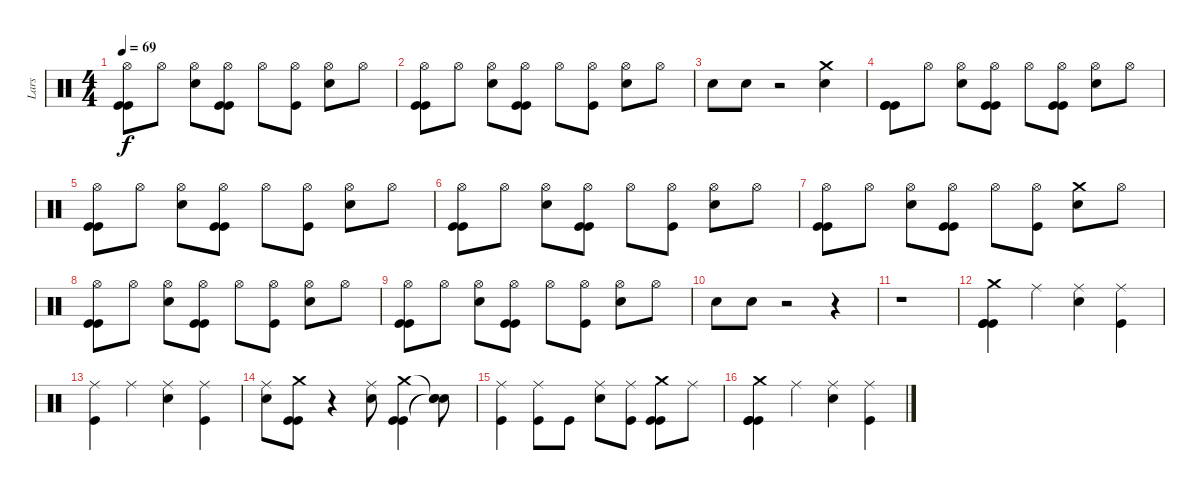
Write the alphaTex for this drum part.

\track ("Lars" "Lars") {instrument percussion}
\staff {score}
\articulation defaults
\ts (4 4)
\tempo 69
\clef neutral
\ks c
("Hi-Hat (open)" "Kick (hit)" "Kick (hit)").8{dy f} "Hi-Hat (open)".8 ("Hi-Hat (open)" "Electric Snare (hit)").8 ("Hi-Hat (open)" "Kick (hit)" "Kick (hit)").8 "Hi-Hat (open)".8 ("Hi-Hat (open)" "Kick (hit)").8 ("Hi-Hat (open)" "Electric Snare (hit)").8 "Hi-Hat (open)".8 |
("Hi-Hat (open)" "Kick (hit)" "Kick (hit)").8 "Hi-Hat (open)".8 ("Hi-Hat (open)" "Electric Snare (hit)").8 ("Hi-Hat (open)" "Kick (hit)" "Kick (hit)").8 "Hi-Hat (open)".8 ("Hi-Hat (open)" "Kick (hit)").8 ("Hi-Hat (open)" "Electric Snare (hit)").8 "Hi-Hat (open)".8 |
"Electric Snare (hit)".8 "Electric Snare (hit)".8 r.2 ("Electric Snare (hit)" "Crash medium (hit)").4 |
("Kick (hit)" "Kick (hit)" "Kick (hit)").8 "Hi-Hat (open)".8 ("Hi-Hat (open)" "Electric Snare (hit)").8 ("Hi-Hat (open)" "Kick (hit)" "Kick (hit)").8 "Hi-Hat (open)".8 ("Hi-Hat (open)" "Kick (hit)" "Kick (hit)").8 ("Hi-Hat (open)" "Electric Snare (hit)").8 "Hi-Hat (open)".8 |
("Hi-Hat (open)" "Kick (hit)" "Kick (hit)").8 "Hi-Hat (open)".8 ("Hi-Hat (open)" "Electric Snare (hit)").8 ("Hi-Hat (open)" "Kick (hit)" "Kick (hit)").8 "Hi-Hat (open)".8 ("Hi-Hat (open)" "Kick (hit)").8 ("Hi-Hat (open)" "Electric Snare (hit)").8 "Hi-Hat (open)".8 |
("Hi-Hat (open)" "Kick (hit)" "Kick (hit)").8 "Hi-Hat (open)".8 ("Hi-Hat (open)" "Electric Snare (hit)").8 ("Hi-Hat (open)" "Kick (hit)" "Kick (hit)").8 "Hi-Hat (open)".8 ("Hi-Hat (open)" "Kick (hit)").8 ("Hi-Hat (open)" "Electric Snare (hit)").8 "Hi-Hat (open)".8 |
("Hi-Hat (open)" "Kick (hit)" "Kick (hit)").8 "Hi-Hat (open)".8 ("Hi-Hat (open)" "Electric Snare (hit)").8 ("Hi-Hat (open)" "Kick (hit)" "Kick (hit)").8 "Hi-Hat (open)".8 ("Hi-Hat (open)" "Kick (hit)").8 ("Electric Snare (hit)" "Crash medium (hit)").8 "Hi-Hat (open)".8 |
("Hi-Hat (open)" "Kick (hit)" "Kick (hit)").8 "Hi-Hat (open)".8 ("Hi-Hat (open)" "Electric Snare (hit)").8 ("Hi-Hat (open)" "Kick (hit)" "Kick (hit)").8 "Hi-Hat (open)".8 ("Hi-Hat (open)" "Kick (hit)").8 ("Hi-Hat (open)" "Electric Snare (hit)").8 "Hi-Hat (open)".8 |
("Hi-Hat (open)" "Kick (hit)" "Kick (hit)").8 "Hi-Hat (open)".8 ("Hi-Hat (open)" "Electric Snare (hit)").8 ("Hi-Hat (open)" "Kick (hit)" "Kick (hit)").8 "Hi-Hat (open)".8 ("Hi-Hat (open)" "Kick (hit)").8 ("Hi-Hat (open)" "Electric Snare (hit)").8 "Hi-Hat (open)".8 |
"Electric Snare (hit)".8 "Electric Snare (hit)".8 r.2 r.4 |
r.1 |
("Kick (hit)" "Kick (hit)" "Kick (hit)" "Crash medium (hit)").4 "Ride (middle)".4 ("Ride (middle)" "Electric Snare (hit)").4 ("Ride (middle)" "Kick (hit)").4 |
("Ride (middle)" "Kick (hit)").4 "Ride (middle)".4 ("Ride (middle)" "Electric Snare (hit)").4 ("Ride (middle)" "Kick (hit)").4 |
("Ride (middle)" "Electric Snare (hit)").8 ("Kick (hit)" "Kick (hit)" "Crash medium (hit)").8 r.4 ("Ride (middle)" "Electric Snare (hit)").8 ("Kick (hit)" "Kick (hit)" "Crash medium (hit)").4 ("Snare (hit)"{t} "Snare (hit)"{t} "Snare (hit)"{t}).8 |
("Ride (middle)" "Kick (hit)").4 ("Ride (middle)" "Kick (hit)").8 "Kick (hit)".8 ("Ride (middle)" "Electric Snare (hit)").8 ("Ride (middle)" "Kick (hit)").8 ("Kick (hit)" "Kick (hit)" "Crash medium (hit)").8 "Ride (middle)".8 |
("Kick (hit)" "Kick (hit)" "Kick (hit)" "Crash medium (hit)").4 "Ride (middle)".4 ("Ride (middle)" "Electric Snare (hit)").4 ("Ride (middle)" "Kick (hit)").4
